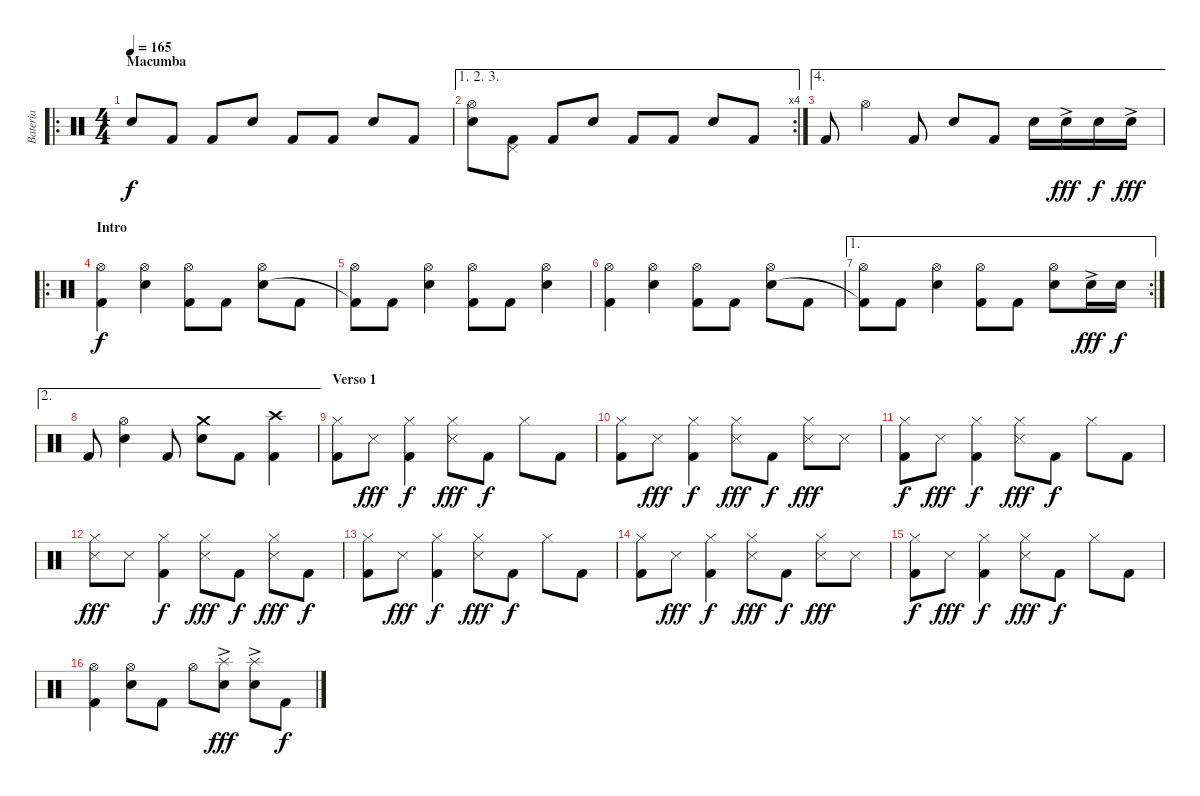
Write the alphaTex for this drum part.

\track ("Bateria" "Bateria") {instrument percussion}
\staff {score}
\articulation defaults
\ro
\ts (4 4)
\section ("" "Macumba")
\tempo 165
\clef neutral
\ks c "Electric Snare (hit)".8{dy f} "Kick (hit) 2".8 "Kick (hit) 2".8 "Electric Snare (hit)".8 "Kick (hit) 2".8 "Kick (hit) 2".8 "Electric Snare (hit)".8 "Kick (hit) 2".8
|
\ae (1 2 3)
\rc 4
("Hi-Hat (open)" "Electric Snare (hit)").8 ("Pedal Hi-Hat (hit)" "Kick (hit) 2").8 "Kick (hit) 2".8 "Electric Snare (hit)".8 "Kick (hit) 2".8 "Kick (hit) 2".8 "Electric Snare (hit)".8 "Kick (hit) 2".8 |
\ae 4 "Kick (hit) 2".8 "Hi-Hat (open)".4 "Kick (hit) 2".8 "Electric Snare (hit)".8 "Kick (hit) 2".8 "Electric Snare (hit)".16 "Electric Snare (hit)"{ac}.16{dy fff} "Electric Snare (hit)".16{dy f} "Electric Snare (hit)"{ac}.16{dy fff}
|
\ro
\section ("" "Intro")
("Hi-Hat (open)" "Kick (hit) 2").4{dy f} ("Hi-Hat (open)" "Snare (hit) 2").4 ("Hi-Hat (open)" "Kick (hit) 2").8 "Kick (hit) 2".8 ("Hi-Hat (open)" "Snare (hit) 2").8 "Kick (hit) 2".8 |
("Hi-Hat (open)" "Kick (hit) 2"{t}).8 "Kick (hit) 2".8 ("Hi-Hat (open)" "Snare (hit) 2").4 ("Hi-Hat (open)" "Kick (hit) 2").8 "Kick (hit) 2".8 ("Hi-Hat (open)" "Snare (hit) 2").4 |
("Hi-Hat (open)" "Kick (hit) 2").4 ("Hi-Hat (open)" "Snare (hit) 2").4 ("Hi-Hat (open)" "Kick (hit) 2").8 "Kick (hit) 2".8 ("Hi-Hat (open)" "Snare (hit) 2").8 "Kick (hit) 2".8 |
\ae 1
\rc 2
("Hi-Hat (open)" "Kick (hit) 2"{t}).8 "Kick (hit) 2".8 ("Hi-Hat (open)" "Snare (hit) 2").4 ("Hi-Hat (open)" "Kick (hit) 2").8 "Kick (hit) 2".8 ("Hi-Hat (open)" "Snare (hit) 2").8 "Electric Snare (hit)"{ac}.16{dy fff} "Electric Snare (hit)".16{dy f} |
\ae 2 "Kick (hit) 2".8
("Hi-Hat (open)" "Electric Snare (hit)").4 "Kick (hit) 2".8 ("Crash medium (hit)" "Electric Snare (hit)").8 "Kick (hit) 2".8 ("Crash high (hit)" "Kick (hit) 2").4 |
\section ("" "Verso 1")
("Hi-Hat (closed)" "Kick (hit) 2").8 "Snare (side stick) 3".8{dy fff} ("Hi-Hat (closed)" "Kick (hit) 2").4{dy f} ("Hi-Hat (closed)" "Snare (side stick) 3").8{dy fff} "Kick (hit) 2".8{dy f} "Hi-Hat (closed)".8 "Kick (hit) 2".8 |
("Hi-Hat (closed)" "Kick (hit) 2").8 "Snare (side stick) 3".8{dy fff} ("Hi-Hat (closed)" "Kick (hit) 2").4{dy f} ("Hi-Hat (closed)" "Snare (side stick) 3").8{dy fff} "Kick (hit) 2".8{dy f} ("Hi-Hat (closed)" "Snare (side stick) 3").8{dy fff} "Snare (side stick) 3".8 |
("Hi-Hat (closed)" "Kick (hit) 2").8{dy f} "Snare (side stick) 3".8{dy fff} ("Hi-Hat (closed)" "Kick (hit) 2").4{dy f} ("Hi-Hat (closed)" "Snare (side stick) 3").8{dy fff} "Kick (hit) 2".8{dy f} "Hi-Hat (closed)".8 "Kick (hit) 2".8 |
("Hi-Hat (closed)" "Snare (side stick) 3").8{dy fff} "Snare (side stick) 3".8 ("Hi-Hat (closed)" "Kick (hit) 2").4{dy f} ("Hi-Hat (closed)" "Snare (side stick) 3").8{dy fff} "Kick (hit) 2".8{dy f} ("Hi-Hat (closed)" "Snare (side stick) 3").8{dy fff} "Kick (hit) 2".8{dy f} |
("Hi-Hat (closed)" "Kick (hit) 2").8 "Snare (side stick) 3".8{dy fff} ("Hi-Hat (closed)" "Kick (hit) 2").4{dy f} ("Hi-Hat (closed)" "Snare (side stick) 3").8{dy fff} "Kick (hit) 2".8{dy f} "Hi-Hat (closed)".8 "Kick (hit) 2".8 |
("Hi-Hat (closed)" "Kick (hit) 2").8 "Snare (side stick) 3".8{dy fff} ("Hi-Hat (closed)" "Kick (hit) 2").4{dy f} ("Hi-Hat (closed)" "Snare (side stick) 3").8{dy fff} "Kick (hit) 2".8{dy f} ("Hi-Hat (closed)" "Snare (side stick) 3").8{dy fff} "Snare (side stick) 3".8 |
("Hi-Hat (closed)" "Kick (hit) 2").8{dy f} "Snare (side stick) 3".8{dy fff} ("Hi-Hat (closed)" "Kick (hit) 2").4{dy f} ("Hi-Hat (closed)" "Snare (side stick) 3").8{dy fff} "Kick (hit) 2".8{dy f} "Hi-Hat (closed)".8 "Kick (hit) 2".8 |
("Hi-Hat (open)" "Kick (hit) 2").4 ("Hi-Hat (open)" "Electric Snare (hit)").8 "Kick (hit) 2".8 "Hi-Hat (open)".8 ("Splash (hit)" "Electric Snare (hit)"{ac}).8{dy fff} ("Splash (hit)" "Electric Snare (hit)"{ac}).8 "Kick (hit) 2".8{dy f}
